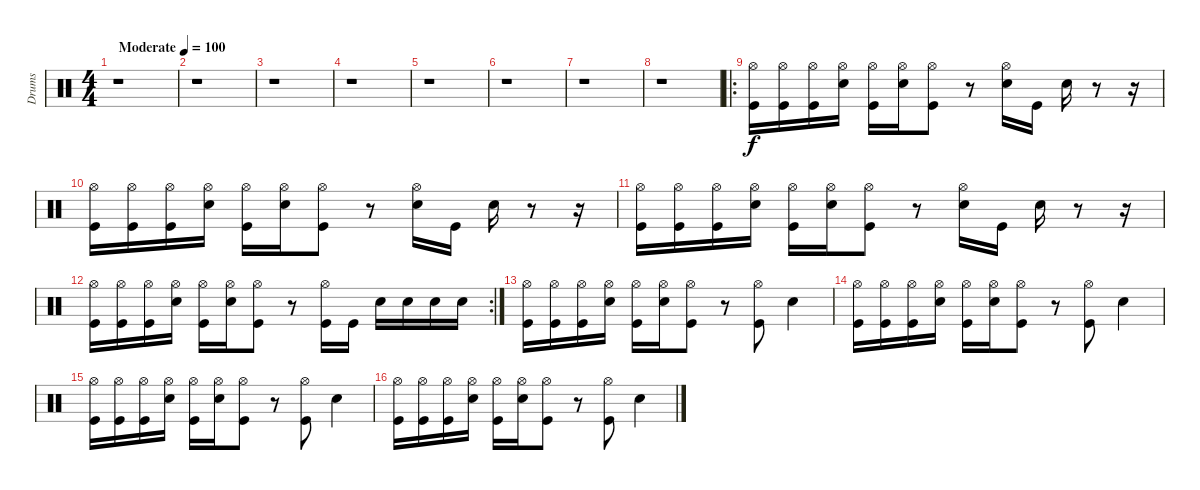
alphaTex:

\track ("Drums" "Drums") {instrument percussion}
\staff {score}
\articulation defaults
\ts (4 4)
\tempo (100 "Moderate")
\clef neutral
\ks c
r.1{dy f} |
r.1 |
r.1 |
r.1 |
r.1 |
r.1 |
r.1 |
r.1 |
\ro
("Hi-Hat (open)" "Kick (hit)").16 ("Hi-Hat (open)" "Kick (hit)").16 ("Hi-Hat (open)" "Kick (hit)").16 ("Hi-Hat (open)" "Snare (hit) 2").16 ("Hi-Hat (open)" "Kick (hit)").16 ("Hi-Hat (open)" "Snare (hit) 2").16 ("Hi-Hat (open)" "Kick (hit)").8 r.8 ("Hi-Hat (open)" "Snare (hit) 2").16 "Kick (hit)".16 "Snare (hit) 2".16 r.8 r.16 |
("Hi-Hat (open)" "Kick (hit)").16 ("Hi-Hat (open)" "Kick (hit)").16 ("Hi-Hat (open)" "Kick (hit)").16 ("Hi-Hat (open)" "Snare (hit) 2").16 ("Hi-Hat (open)" "Kick (hit)").16 ("Hi-Hat (open)" "Snare (hit) 2").16 ("Hi-Hat (open)" "Kick (hit)").8 r.8 ("Hi-Hat (open)" "Snare (hit) 2").16 "Kick (hit)".16 "Snare (hit) 2".16 r.8 r.16 |
("Hi-Hat (open)" "Kick (hit)").16 ("Hi-Hat (open)" "Kick (hit)").16 ("Hi-Hat (open)" "Kick (hit)").16 ("Hi-Hat (open)" "Snare (hit) 2").16 ("Hi-Hat (open)" "Kick (hit)").16 ("Hi-Hat (open)" "Snare (hit) 2").16 ("Hi-Hat (open)" "Kick (hit)").8 r.8 ("Hi-Hat (open)" "Snare (hit) 2").16 "Kick (hit)".16 "Snare (hit) 2".16 r.8 r.16 |
\rc 2
("Hi-Hat (open)" "Kick (hit)").16 ("Hi-Hat (open)" "Kick (hit)").16 ("Hi-Hat (open)" "Kick (hit)").16 ("Hi-Hat (open)" "Snare (hit) 2").16 ("Hi-Hat (open)" "Kick (hit)").16 ("Hi-Hat (open)" "Snare (hit) 2").16 ("Hi-Hat (open)" "Kick (hit)").8 r.8 ("Hi-Hat (open)" "Kick (hit)").16 "Kick (hit)".16 "Snare (hit) 2".16 "Snare (hit) 2".16 "Snare (hit) 2".16 "Snare (hit) 2".16 |
("Hi-Hat (open)" "Kick (hit)").16 ("Hi-Hat (open)" "Kick (hit)").16 ("Hi-Hat (open)" "Kick (hit)").16 ("Hi-Hat (open)" "Snare (hit) 2").16 ("Hi-Hat (open)" "Kick (hit)").16 ("Hi-Hat (open)" "Snare (hit) 2").16 ("Hi-Hat (open)" "Kick (hit)").8 r.8 ("Hi-Hat (open)" "Kick (hit)").8 "Snare (hit) 2".4 |
("Hi-Hat (open)" "Kick (hit)").16 ("Hi-Hat (open)" "Kick (hit)").16 ("Hi-Hat (open)" "Kick (hit)").16 ("Hi-Hat (open)" "Snare (hit) 2").16 ("Hi-Hat (open)" "Kick (hit)").16 ("Hi-Hat (open)" "Snare (hit) 2").16 ("Hi-Hat (open)" "Kick (hit)").8 r.8 ("Hi-Hat (open)" "Kick (hit)").8 "Snare (hit) 2".4 |
("Hi-Hat (open)" "Kick (hit)").16 ("Hi-Hat (open)" "Kick (hit)").16 ("Hi-Hat (open)" "Kick (hit)").16 ("Hi-Hat (open)" "Snare (hit) 2").16 ("Hi-Hat (open)" "Kick (hit)").16 ("Hi-Hat (open)" "Snare (hit) 2").16 ("Hi-Hat (open)" "Kick (hit)").8 r.8 ("Hi-Hat (open)" "Kick (hit)").8 "Snare (hit) 2".4 |
("Hi-Hat (open)" "Kick (hit)").16 ("Hi-Hat (open)" "Kick (hit)").16 ("Hi-Hat (open)" "Kick (hit)").16 ("Hi-Hat (open)" "Snare (hit) 2").16 ("Hi-Hat (open)" "Kick (hit)").16 ("Hi-Hat (open)" "Snare (hit) 2").16 ("Hi-Hat (open)" "Kick (hit)").8 r.8 ("Hi-Hat (open)" "Kick (hit)").8 "Snare (hit) 2".4
